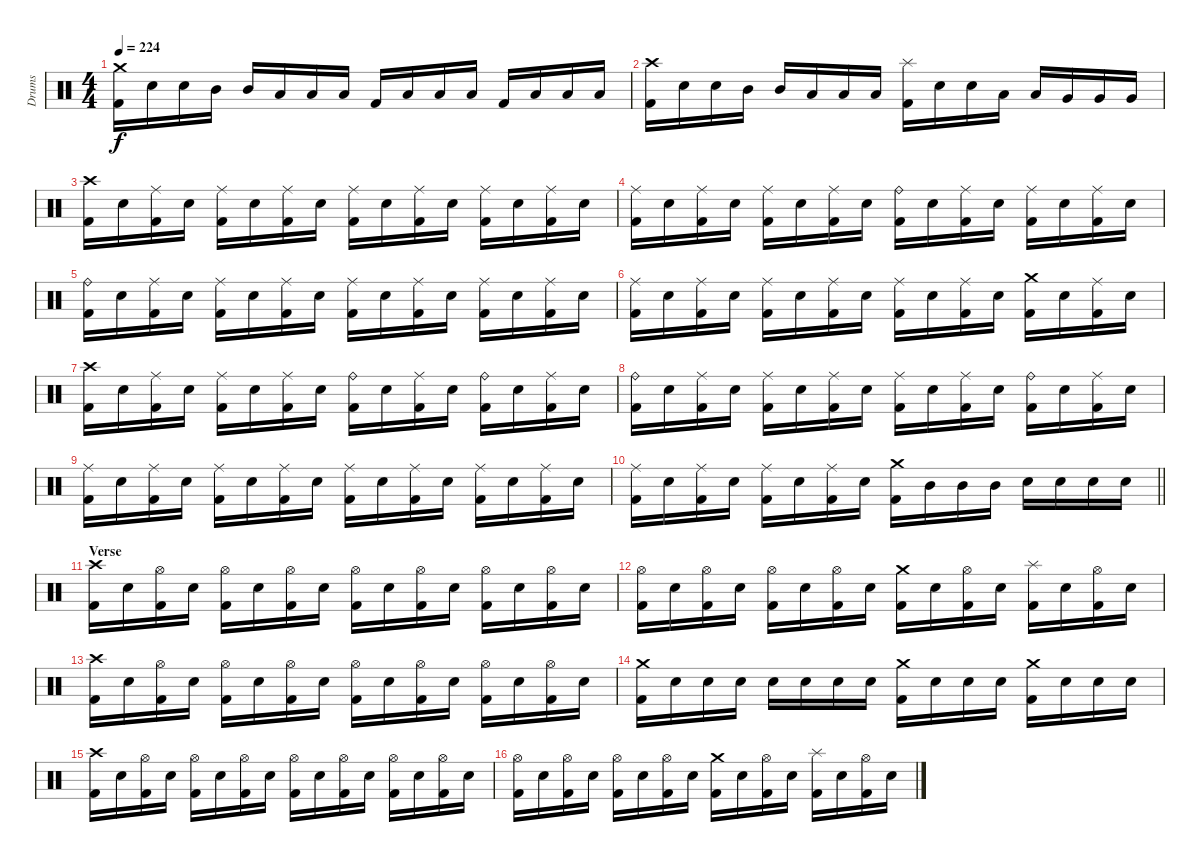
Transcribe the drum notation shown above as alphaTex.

\track ("Drums" "Drums") {instrument percussion}
\staff {score}
\articulation defaults
\ts (4 4)
\tempo 224
\clef neutral
\ks c
("Crash medium (hit)" "Kick (hit) 2").16{dy f} "Electric Snare (hit)".16 "Electric Snare (hit)".16 "Mid Tom (hit)".16 "Mid Tom (hit)".16 "Low Tom (hit)".16 "Low Tom (hit)".16 "Low Tom (hit)".16 "Kick (hit) 2".16 "Low Tom (hit)".16 "Low Tom (hit)".16 "Low Tom (hit)".16 "Kick (hit) 2".16 "Low Tom (hit)".16 "Low Tom (hit)".16 "Low Tom (hit)".16 |
("Crash high (hit)" "Kick (hit) 2").16 "Electric Snare (hit)".16 "Electric Snare (hit)".16 "Mid Tom (hit)".16 "Mid Tom (hit)".16 "Low Tom (hit)".16 "Low Tom (hit)".16 "Low Tom (hit)".16 ("Splash (hit)" "Kick (hit) 2").16 "Electric Snare (hit)".16 "Electric Snare (hit)".16 "Low Tom (hit)".16 "Low Tom (hit)".16 "Very Low Tom (hit)".16 "Very Low Tom (hit)".16 "Very Low Tom (hit)".16 |
("Crash high (hit)" "Kick (hit) 2").16 "Electric Snare (hit)".16 ("Ride (middle)" "Kick (hit) 2").16 "Electric Snare (hit)".16 ("Ride (middle)" "Kick (hit) 2").16 "Electric Snare (hit)".16 ("Ride (middle)" "Kick (hit) 2").16 "Electric Snare (hit)".16 ("Ride (middle)" "Kick (hit) 2").16 "Electric Snare (hit)".16 ("Ride (middle)" "Kick (hit) 2").16 "Electric Snare (hit)".16 ("Ride (middle)" "Kick (hit) 2").16 "Electric Snare (hit)".16 ("Ride (middle)" "Kick (hit) 2").16 "Electric Snare (hit)".16 |
("Ride (middle)" "Kick (hit) 2").16 "Electric Snare (hit)".16 ("Ride (middle)" "Kick (hit) 2").16 "Electric Snare (hit)".16 ("Ride (middle)" "Kick (hit) 2").16 "Electric Snare (hit)".16 ("Ride (middle)" "Kick (hit) 2").16 "Electric Snare (hit)".16 ("Ride (bell)" "Kick (hit) 2").16 "Electric Snare (hit)".16 ("Ride (middle)" "Kick (hit) 2").16 "Electric Snare (hit)".16 ("Ride (middle)" "Kick (hit) 2").16 "Electric Snare (hit)".16 ("Ride (middle)" "Kick (hit) 2").16 "Electric Snare (hit)".16 |
("Ride (bell)" "Kick (hit) 2").16 "Electric Snare (hit)".16 ("Ride (middle)" "Kick (hit) 2").16 "Electric Snare (hit)".16 ("Ride (middle)" "Kick (hit) 2").16 "Electric Snare (hit)".16 ("Ride (middle)" "Kick (hit) 2").16 "Electric Snare (hit)".16 ("Ride (middle)" "Kick (hit) 2").16 "Electric Snare (hit)".16 ("Ride (middle)" "Kick (hit) 2").16 "Electric Snare (hit)".16 ("Ride (middle)" "Kick (hit) 2").16 "Electric Snare (hit)".16 ("Ride (middle)" "Kick (hit) 2").16 "Electric Snare (hit)".16 |
("Ride (middle)" "Kick (hit) 2").16 "Electric Snare (hit)".16 ("Ride (middle)" "Kick (hit) 2").16 "Electric Snare (hit)".16 ("Ride (middle)" "Kick (hit) 2").16 "Electric Snare (hit)".16 ("Ride (middle)" "Kick (hit) 2").16 "Electric Snare (hit)".16 ("Ride (middle)" "Kick (hit) 2").16 "Electric Snare (hit)".16 ("Ride (middle)" "Kick (hit) 2").16 "Electric Snare (hit)".16 ("Crash medium (hit)" "Kick (hit) 2").16 "Electric Snare (hit)".16 ("Ride (middle)" "Kick (hit) 2").16 "Electric Snare (hit)".16 |
("Crash high (hit)" "Kick (hit) 2").16 "Electric Snare (hit)".16 ("Ride (middle)" "Kick (hit) 2").16 "Electric Snare (hit)".16 ("Ride (middle)" "Kick (hit) 2").16 "Electric Snare (hit)".16 ("Ride (middle)" "Kick (hit) 2").16 "Electric Snare (hit)".16 ("Ride (bell)" "Kick (hit) 2").16 "Electric Snare (hit)".16 ("Ride (middle)" "Kick (hit) 2").16 "Electric Snare (hit)".16 ("Ride (bell)" "Kick (hit) 2").16 "Electric Snare (hit)".16 ("Ride (middle)" "Kick (hit) 2").16 "Electric Snare (hit)".16 |
("Ride (bell)" "Kick (hit) 2").16 "Electric Snare (hit)".16 ("Ride (middle)" "Kick (hit) 2").16 "Electric Snare (hit)".16 ("Ride (middle)" "Kick (hit) 2").16 "Electric Snare (hit)".16 ("Ride (middle)" "Kick (hit) 2").16 "Electric Snare (hit)".16 ("Ride (middle)" "Kick (hit) 2").16 "Electric Snare (hit)".16 ("Ride (middle)" "Kick (hit) 2").16 "Electric Snare (hit)".16 ("Ride (bell)" "Kick (hit) 2").16 "Electric Snare (hit)".16 ("Ride (middle)" "Kick (hit) 2").16 "Electric Snare (hit)".16 |
("Ride (middle)" "Kick (hit) 2").16 "Electric Snare (hit)".16 ("Ride (middle)" "Kick (hit) 2").16 "Electric Snare (hit)".16 ("Ride (middle)" "Kick (hit) 2").16 "Electric Snare (hit)".16 ("Ride (middle)" "Kick (hit) 2").16 "Electric Snare (hit)".16 ("Ride (middle)" "Kick (hit) 2").16 "Electric Snare (hit)".16 ("Ride (middle)" "Kick (hit) 2").16 "Electric Snare (hit)".16 ("Ride (middle)" "Kick (hit) 2").16 "Electric Snare (hit)".16 ("Ride (middle)" "Kick (hit) 2").16 "Electric Snare (hit)".16 |
\barLineRight lightlight
("Ride (middle)" "Kick (hit) 2").16 "Electric Snare (hit)".16 ("Ride (middle)" "Kick (hit) 2").16 "Electric Snare (hit)".16 ("Ride (middle)" "Kick (hit) 2").16 "Electric Snare (hit)".16 ("Ride (middle)" "Kick (hit) 2").16 "Electric Snare (hit)".16 ("Crash medium (hit)" "Kick (hit) 2").16 "Mid Tom (hit)".16 "Mid Tom (hit)".16 "Mid Tom (hit)".16 "Electric Snare (hit)".16 "Electric Snare (hit)".16 "Electric Snare (hit)".16 "Electric Snare (hit)".16 |
\section ("" "Verse")
("Crash high (hit)" "Kick (hit) 2").16 "Electric Snare (hit)".16 ("Hi-Hat (open)" "Kick (hit) 2").16 "Electric Snare (hit)".16 ("Hi-Hat (open)" "Kick (hit) 2").16 "Electric Snare (hit)".16 ("Hi-Hat (open)" "Kick (hit) 2").16 "Electric Snare (hit)".16 ("Hi-Hat (open)" "Kick (hit) 2").16 "Electric Snare (hit)".16 ("Hi-Hat (open)" "Kick (hit) 2").16 "Electric Snare (hit)".16 ("Hi-Hat (open)" "Kick (hit) 2").16 "Electric Snare (hit)".16 ("Hi-Hat (open)" "Kick (hit) 2").16 "Electric Snare (hit)".16 |
("Hi-Hat (open)" "Kick (hit) 2").16 "Electric Snare (hit)".16 ("Hi-Hat (open)" "Kick (hit) 2").16 "Electric Snare (hit)".16 ("Hi-Hat (open)" "Kick (hit) 2").16 "Electric Snare (hit)".16 ("Hi-Hat (open)" "Kick (hit) 2").16 "Electric Snare (hit)".16 ("Crash medium (hit)" "Kick (hit) 2").16 "Electric Snare (hit)".16 ("Hi-Hat (open)" "Kick (hit) 2").16 "Electric Snare (hit)".16 ("Splash (hit)" "Kick (hit) 2").16 "Electric Snare (hit)".16 ("Hi-Hat (open)" "Kick (hit) 2").16 "Electric Snare (hit)".16 |
("Crash high (hit)" "Kick (hit) 2").16 "Electric Snare (hit)".16 ("Hi-Hat (open)" "Kick (hit) 2").16 "Electric Snare (hit)".16 ("Hi-Hat (open)" "Kick (hit) 2").16 "Electric Snare (hit)".16 ("Hi-Hat (open)" "Kick (hit) 2").16 "Electric Snare (hit)".16 ("Hi-Hat (open)" "Kick (hit) 2").16 "Electric Snare (hit)".16 ("Hi-Hat (open)" "Kick (hit) 2").16 "Electric Snare (hit)".16 ("Hi-Hat (open)" "Kick (hit) 2").16 "Electric Snare (hit)".16 ("Hi-Hat (open)" "Kick (hit) 2").16 "Electric Snare (hit)".16 |
("Crash medium (hit)" "Kick (hit) 2").16 "Electric Snare (hit)".16 "Electric Snare (hit)".16 "Electric Snare (hit)".16 "Electric Snare (hit)".16 "Electric Snare (hit)".16 "Electric Snare (hit)".16 "Electric Snare (hit)".16 ("Crash medium (hit)" "Kick (hit) 2").16 "Electric Snare (hit)".16 "Electric Snare (hit)".16 "Electric Snare (hit)".16 ("Crash medium (hit)" "Kick (hit) 2").16 "Electric Snare (hit)".16 "Electric Snare (hit)".16 "Electric Snare (hit)".16 |
("Crash high (hit)" "Kick (hit) 2").16 "Electric Snare (hit)".16 ("Hi-Hat (open)" "Kick (hit) 2").16 "Electric Snare (hit)".16 ("Hi-Hat (open)" "Kick (hit) 2").16 "Electric Snare (hit)".16 ("Hi-Hat (open)" "Kick (hit) 2").16 "Electric Snare (hit)".16 ("Hi-Hat (open)" "Kick (hit) 2").16 "Electric Snare (hit)".16 ("Hi-Hat (open)" "Kick (hit) 2").16 "Electric Snare (hit)".16 ("Hi-Hat (open)" "Kick (hit) 2").16 "Electric Snare (hit)".16 ("Hi-Hat (open)" "Kick (hit) 2").16 "Electric Snare (hit)".16 |
("Hi-Hat (open)" "Kick (hit) 2").16 "Electric Snare (hit)".16 ("Hi-Hat (open)" "Kick (hit) 2").16 "Electric Snare (hit)".16 ("Hi-Hat (open)" "Kick (hit) 2").16 "Electric Snare (hit)".16 ("Hi-Hat (open)" "Kick (hit) 2").16 "Electric Snare (hit)".16 ("Crash medium (hit)" "Kick (hit) 2").16 "Electric Snare (hit)".16 ("Hi-Hat (open)" "Kick (hit) 2").16 "Electric Snare (hit)".16 ("Splash (hit)" "Kick (hit) 2").16 "Electric Snare (hit)".16 ("Hi-Hat (open)" "Kick (hit) 2").16 "Electric Snare (hit)".16
